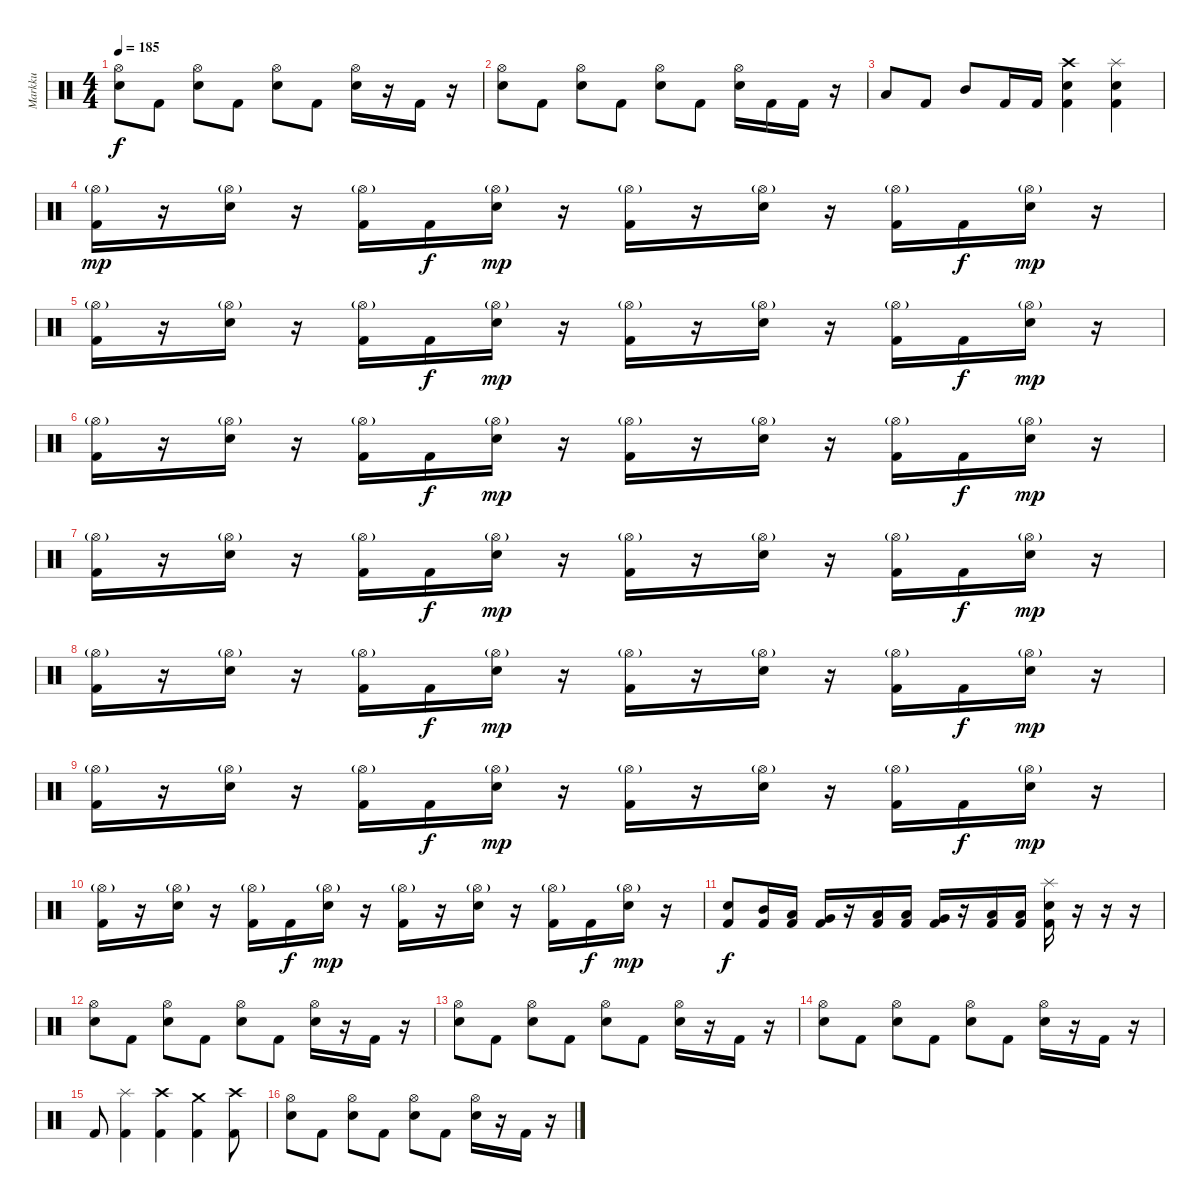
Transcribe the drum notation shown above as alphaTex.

\track ("Markku" "Markku") {instrument percussion}
\staff {score}
\articulation defaults
\ts (4 4)
\tempo 185
\clef neutral
\ks c
("Snare (hit) 2" "Hi-Hat (open)").8{dy f} "Kick (hit) 2".8 ("Snare (hit) 2" "Hi-Hat (open)").8 "Kick (hit) 2".8 ("Snare (hit) 2" "Hi-Hat (open)").8 "Kick (hit) 2".8 ("Snare (hit) 2" "Hi-Hat (open)").16 r.16 "Kick (hit) 2".16 r.16 |
("Snare (hit) 2" "Hi-Hat (open)").8 "Kick (hit) 2".8 ("Snare (hit) 2" "Hi-Hat (open)").8 "Kick (hit) 2".8 ("Snare (hit) 2" "Hi-Hat (open)").8 "Kick (hit) 2".8 ("Snare (hit) 2" "Hi-Hat (open)").16 "Kick (hit) 2".16 "Kick (hit) 2".16 r.16 |
"Low Tom (hit)".8 "Kick (hit) 2".8 "Mid Tom (hit)".8 "Kick (hit) 2".16 "Kick (hit) 2".16 ("Kick (hit) 2" "Snare (hit) 2" "Crash high (hit)").4 ("Kick (hit) 2" "Snare (hit) 2" "Splash (hit)").4 |
("Kick (hit) 2" "Hi-Hat (open)"{g}).16{dy mp} r.16 ("Snare (hit) 2" "Hi-Hat (open)"{g}).16 r.16 ("Kick (hit) 2" "Hi-Hat (open)"{g}).16 "Kick (hit) 2".16{dy f} ("Snare (hit) 2" "Hi-Hat (open)"{g}).16{dy mp} r.16 ("Kick (hit) 2" "Hi-Hat (open)"{g}).16 r.16 ("Snare (hit) 2" "Hi-Hat (open)"{g}).16 r.16 ("Kick (hit) 2" "Hi-Hat (open)"{g}).16 "Kick (hit) 2".16{dy f} ("Snare (hit) 2" "Hi-Hat (open)"{g}).16{dy mp} r.16 |
("Kick (hit) 2" "Hi-Hat (open)"{g}).16 r.16 ("Snare (hit) 2" "Hi-Hat (open)"{g}).16 r.16 ("Kick (hit) 2" "Hi-Hat (open)"{g}).16 "Kick (hit) 2".16{dy f} ("Snare (hit) 2" "Hi-Hat (open)"{g}).16{dy mp} r.16 ("Kick (hit) 2" "Hi-Hat (open)"{g}).16 r.16 ("Snare (hit) 2" "Hi-Hat (open)"{g}).16 r.16 ("Kick (hit) 2" "Hi-Hat (open)"{g}).16 "Kick (hit) 2".16{dy f} ("Snare (hit) 2" "Hi-Hat (open)"{g}).16{dy mp} r.16 |
("Kick (hit) 2" "Hi-Hat (open)"{g}).16 r.16 ("Snare (hit) 2" "Hi-Hat (open)"{g}).16 r.16 ("Kick (hit) 2" "Hi-Hat (open)"{g}).16 "Kick (hit) 2".16{dy f} ("Snare (hit) 2" "Hi-Hat (open)"{g}).16{dy mp} r.16 ("Kick (hit) 2" "Hi-Hat (open)"{g}).16 r.16 ("Snare (hit) 2" "Hi-Hat (open)"{g}).16 r.16 ("Kick (hit) 2" "Hi-Hat (open)"{g}).16 "Kick (hit) 2".16{dy f} ("Snare (hit) 2" "Hi-Hat (open)"{g}).16{dy mp} r.16 |
("Kick (hit) 2" "Hi-Hat (open)"{g}).16 r.16 ("Snare (hit) 2" "Hi-Hat (open)"{g}).16 r.16 ("Kick (hit) 2" "Hi-Hat (open)"{g}).16 "Kick (hit) 2".16{dy f} ("Snare (hit) 2" "Hi-Hat (open)"{g}).16{dy mp} r.16 ("Kick (hit) 2" "Hi-Hat (open)"{g}).16 r.16 ("Snare (hit) 2" "Hi-Hat (open)"{g}).16 r.16 ("Kick (hit) 2" "Hi-Hat (open)"{g}).16 "Kick (hit) 2".16{dy f} ("Snare (hit) 2" "Hi-Hat (open)"{g}).16{dy mp} r.16 |
("Kick (hit) 2" "Hi-Hat (open)"{g}).16 r.16 ("Snare (hit) 2" "Hi-Hat (open)"{g}).16 r.16 ("Kick (hit) 2" "Hi-Hat (open)"{g}).16 "Kick (hit) 2".16{dy f} ("Snare (hit) 2" "Hi-Hat (open)"{g}).16{dy mp} r.16 ("Kick (hit) 2" "Hi-Hat (open)"{g}).16 r.16 ("Snare (hit) 2" "Hi-Hat (open)"{g}).16 r.16 ("Kick (hit) 2" "Hi-Hat (open)"{g}).16 "Kick (hit) 2".16{dy f} ("Snare (hit) 2" "Hi-Hat (open)"{g}).16{dy mp} r.16 |
("Kick (hit) 2" "Hi-Hat (open)"{g}).16 r.16 ("Snare (hit) 2" "Hi-Hat (open)"{g}).16 r.16 ("Kick (hit) 2" "Hi-Hat (open)"{g}).16 "Kick (hit) 2".16{dy f} ("Snare (hit) 2" "Hi-Hat (open)"{g}).16{dy mp} r.16 ("Kick (hit) 2" "Hi-Hat (open)"{g}).16 r.16 ("Snare (hit) 2" "Hi-Hat (open)"{g}).16 r.16 ("Kick (hit) 2" "Hi-Hat (open)"{g}).16 "Kick (hit) 2".16{dy f} ("Snare (hit) 2" "Hi-Hat (open)"{g}).16{dy mp} r.16 |
("Kick (hit) 2" "Hi-Hat (open)"{g}).16 r.16 ("Snare (hit) 2" "Hi-Hat (open)"{g}).16 r.16 ("Kick (hit) 2" "Hi-Hat (open)"{g}).16 "Kick (hit) 2".16{dy f} ("Snare (hit) 2" "Hi-Hat (open)"{g}).16{dy mp} r.16 ("Kick (hit) 2" "Hi-Hat (open)"{g}).16 r.16 ("Snare (hit) 2" "Hi-Hat (open)"{g}).16 r.16 ("Kick (hit) 2" "Hi-Hat (open)"{g}).16 "Kick (hit) 2".16{dy f} ("Snare (hit) 2" "Hi-Hat (open)"{g}).16{dy mp} r.16 |
("Kick (hit) 2" "Snare (hit) 2").8{dy f} ("Kick (hit) 2" "Mid Tom (hit)").16 ("Kick (hit) 2" "Low Tom (hit)").16 ("Kick (hit) 2" "Very Low Tom (hit)").16 r.16 ("Kick (hit) 2" "Low Tom (hit)").16 ("Kick (hit) 2" "Low Tom (hit)").16 ("Kick (hit) 2" "Very Low Tom (hit)").16 r.16 ("Kick (hit) 2" "Low Floor Tom (hit)").16 ("Kick (hit) 2" "Low Floor Tom (hit)").16 ("Kick (hit) 2" "Snare (hit) 2" "Splash (hit)").16 r.16 r.16 r.16 |
("Snare (hit) 2" "Hi-Hat (open)").8 "Kick (hit) 2".8 ("Snare (hit) 2" "Hi-Hat (open)").8 "Kick (hit) 2".8 ("Snare (hit) 2" "Hi-Hat (open)").8 "Kick (hit) 2".8 ("Snare (hit) 2" "Hi-Hat (open)").16 r.16 "Kick (hit) 2".16 r.16 |
("Snare (hit) 2" "Hi-Hat (open)").8 "Kick (hit) 2".8 ("Snare (hit) 2" "Hi-Hat (open)").8 "Kick (hit) 2".8 ("Snare (hit) 2" "Hi-Hat (open)").8 "Kick (hit) 2".8 ("Snare (hit) 2" "Hi-Hat (open)").16 r.16 "Kick (hit) 2".16 r.16 |
("Snare (hit) 2" "Hi-Hat (open)").8 "Kick (hit) 2".8 ("Snare (hit) 2" "Hi-Hat (open)").8 "Kick (hit) 2".8 ("Snare (hit) 2" "Hi-Hat (open)").8 "Kick (hit) 2".8 ("Snare (hit) 2" "Hi-Hat (open)").16 r.16 "Kick (hit) 2".16 r.16 |
"Kick (hit) 2".8 ("Kick (hit) 2" "Splash (hit)").4 ("Kick (hit) 2" "Crash high (hit)").4 ("Kick (hit) 2" "Crash medium (hit)").4 ("Kick (hit) 2" "Crash high (hit)").8 |
("Snare (hit) 2" "Hi-Hat (open)").8 "Kick (hit) 2".8 ("Snare (hit) 2" "Hi-Hat (open)").8 "Kick (hit) 2".8 ("Snare (hit) 2" "Hi-Hat (open)").8 "Kick (hit) 2".8 ("Snare (hit) 2" "Hi-Hat (open)").16 r.16 "Kick (hit) 2".16 r.16
